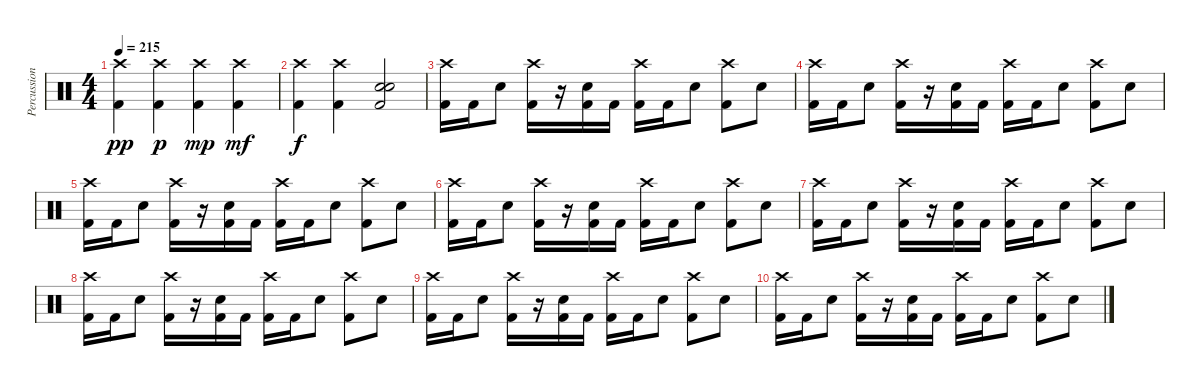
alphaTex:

\track ("Percussions" "Percussion") {instrument percussion}
\staff {score}
\articulation defaults
\ts (4 4)
\tempo 215
\clef neutral
\ks c
("Crash high (hit)" "Kick (hit) 2").4{dy pp} ("Crash high (hit)" "Kick (hit) 2").4{dy p} ("Crash high (hit)" "Kick (hit) 2").4{dy mp} ("Crash high (hit)" "Kick (hit) 2").4{dy mf} |
("Crash high (hit)" "Kick (hit) 2").4{dy f} ("Crash high (hit)" "Kick (hit) 2").4 ("Electric Snare (hit)" "Electric Snare (hit)" "Kick (hit) 2").2 |
("Crash high (hit)" "Kick (hit) 2").16 "Kick (hit) 2".16 "Electric Snare (hit)".8 ("Crash high (hit)" "Kick (hit) 2").16 r.16 ("Electric Snare (hit)" "Kick (hit) 2").16 "Kick (hit) 2".16 ("Crash high (hit)" "Kick (hit) 2").16 "Kick (hit) 2".16 "Electric Snare (hit)".8 ("Crash high (hit)" "Kick (hit) 2").8 "Electric Snare (hit)".8 |
("Crash high (hit)" "Kick (hit) 2").16 "Kick (hit) 2".16 "Electric Snare (hit)".8 ("Crash high (hit)" "Kick (hit) 2").16 r.16 ("Electric Snare (hit)" "Kick (hit) 2").16 "Kick (hit) 2".16 ("Crash high (hit)" "Kick (hit) 2").16 "Kick (hit) 2".16 "Electric Snare (hit)".8 ("Crash high (hit)" "Kick (hit) 2").8 "Electric Snare (hit)".8 |
("Crash high (hit)" "Kick (hit) 2").16 "Kick (hit) 2".16 "Electric Snare (hit)".8 ("Crash high (hit)" "Kick (hit) 2").16 r.16 ("Electric Snare (hit)" "Kick (hit) 2").16 "Kick (hit) 2".16 ("Crash high (hit)" "Kick (hit) 2").16 "Kick (hit) 2".16 "Electric Snare (hit)".8 ("Crash high (hit)" "Kick (hit) 2").8 "Electric Snare (hit)".8 |
("Crash high (hit)" "Kick (hit) 2").16 "Kick (hit) 2".16 "Electric Snare (hit)".8 ("Crash high (hit)" "Kick (hit) 2").16 r.16 ("Electric Snare (hit)" "Kick (hit) 2").16 "Kick (hit) 2".16 ("Crash high (hit)" "Kick (hit) 2").16 "Kick (hit) 2".16 "Electric Snare (hit)".8 ("Crash high (hit)" "Kick (hit) 2").8 "Electric Snare (hit)".8 |
("Crash high (hit)" "Kick (hit) 2").16 "Kick (hit) 2".16 "Electric Snare (hit)".8 ("Crash high (hit)" "Kick (hit) 2").16 r.16 ("Electric Snare (hit)" "Kick (hit) 2").16 "Kick (hit) 2".16 ("Crash high (hit)" "Kick (hit) 2").16 "Kick (hit) 2".16 "Electric Snare (hit)".8 ("Crash high (hit)" "Kick (hit) 2").8 "Electric Snare (hit)".8 |
("Crash high (hit)" "Kick (hit) 2").16 "Kick (hit) 2".16 "Electric Snare (hit)".8 ("Crash high (hit)" "Kick (hit) 2").16 r.16 ("Electric Snare (hit)" "Kick (hit) 2").16 "Kick (hit) 2".16 ("Crash high (hit)" "Kick (hit) 2").16 "Kick (hit) 2".16 "Electric Snare (hit)".8 ("Crash high (hit)" "Kick (hit) 2").8 "Electric Snare (hit)".8 |
("Crash high (hit)" "Kick (hit) 2").16 "Kick (hit) 2".16 "Electric Snare (hit)".8 ("Crash high (hit)" "Kick (hit) 2").16 r.16 ("Electric Snare (hit)" "Kick (hit) 2").16 "Kick (hit) 2".16 ("Crash high (hit)" "Kick (hit) 2").16 "Kick (hit) 2".16 "Electric Snare (hit)".8 ("Crash high (hit)" "Kick (hit) 2").8 "Electric Snare (hit)".8 |
("Crash high (hit)" "Kick (hit) 2").16 "Kick (hit) 2".16 "Electric Snare (hit)".8 ("Crash high (hit)" "Kick (hit) 2").16 r.16 ("Electric Snare (hit)" "Kick (hit) 2").16 "Kick (hit) 2".16 ("Crash high (hit)" "Kick (hit) 2").16 "Kick (hit) 2".16 "Electric Snare (hit)".8 ("Crash high (hit)" "Kick (hit) 2").8 "Electric Snare (hit)".8
